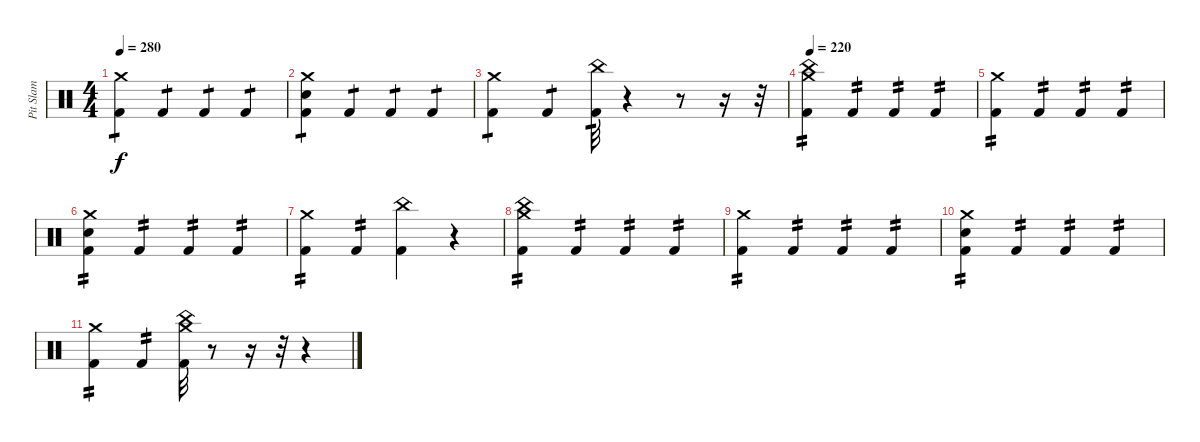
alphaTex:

\track ("Pit Slam" "Pit Slam") {instrument percussion}
\staff {score}
\articulation defaults
\ts (4 4)
\tempo 280
\clef neutral
\ks c
("Crash medium (hit)" "Kick (hit) 2").4{tp 1 dy f} "Kick (hit) 2".4{tp 1} "Kick (hit) 2".4{tp 1} "Kick (hit) 2".4{tp 1} |
("Crash medium (hit)" "Electric Snare (hit)" "Kick (hit) 2").4{tp 1} "Kick (hit) 2".4{tp 1} "Kick (hit) 2".4{tp 1} "Kick (hit) 2".4{tp 1} |
("Crash medium (hit)" "Kick (hit) 2").4{tp 1} "Kick (hit) 2".4{tp 1} ("China (hit)" "Kick (hit) 2").32{tp 1} r.4 r.8 r.16 r.32 |
\tempo 220
("Crash medium (hit)" "China (hit)" "Kick (hit) 2").4{tp 2} "Kick (hit) 2".4{tp 2} "Kick (hit) 2".4{tp 2} "Kick (hit) 2".4{tp 2} |
("Crash medium (hit)" "Kick (hit) 2").4{tp 2} "Kick (hit) 2".4{tp 2} "Kick (hit) 2".4{tp 2} "Kick (hit) 2".4{tp 2} |
("Crash medium (hit)" "Electric Snare (hit)" "Kick (hit) 2").4{tp 2} "Kick (hit) 2".4{tp 2} "Kick (hit) 2".4{tp 2} "Kick (hit) 2".4{tp 2} |
("Crash medium (hit)" "Kick (hit) 2").4{tp 2} "Kick (hit) 2".4{tp 2} ("China (hit)" "Kick (hit) 2").4 r.4 |
("Crash medium (hit)" "China (hit)" "Kick (hit) 2").4{tp 2} "Kick (hit) 2".4{tp 2} "Kick (hit) 2".4{tp 2} "Kick (hit) 2".4{tp 2} |
("Crash medium (hit)" "Kick (hit) 2").4{tp 2} "Kick (hit) 2".4{tp 2} "Kick (hit) 2".4{tp 2} "Kick (hit) 2".4{tp 2} |
("Crash medium (hit)" "Electric Snare (hit)" "Kick (hit) 2").4{tp 2} "Kick (hit) 2".4{tp 2} "Kick (hit) 2".4{tp 2} "Kick (hit) 2".4{tp 2} |
("Crash medium (hit)" "Kick (hit) 2").4{tp 2} "Kick (hit) 2".4{tp 2} ("Crash medium (hit)" "China (hit)" "Kick (hit) 2").32 r.8 r.16 r.32 r.4
